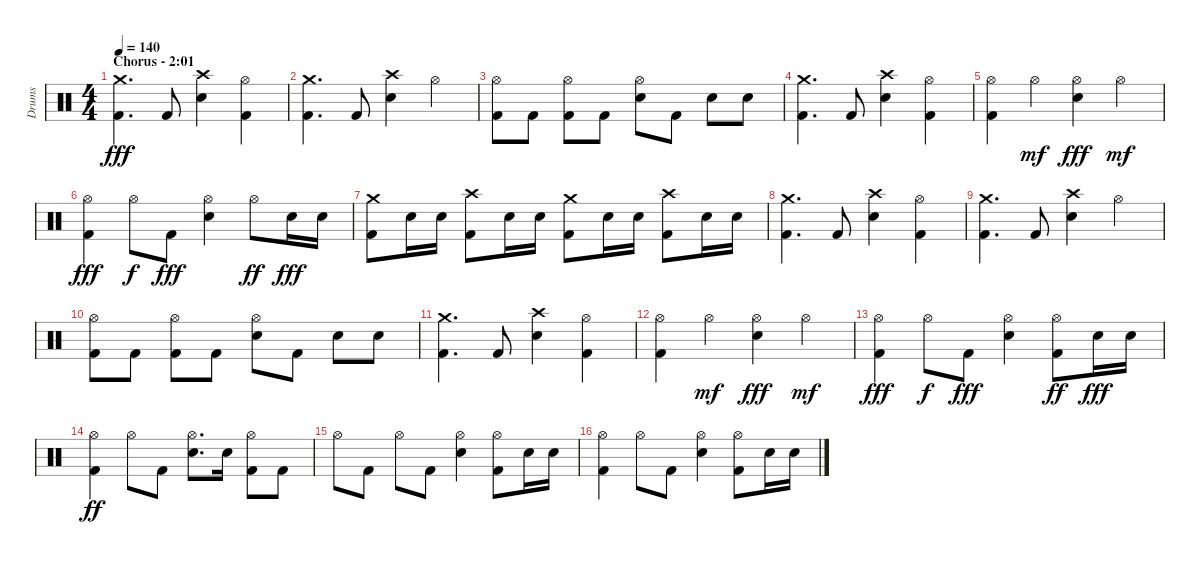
\track ("Drums" "Drums") {instrument percussion}
\staff {score}
\articulation defaults
\ts (4 4)
\section ("" "Chorus - 2:01")
\tempo 140
\clef neutral
\ks c
("Crash medium (hit)" "Kick (hit) 2").4{d dy fff} "Kick (hit) 2".8 ("Crash high (hit)" "Electric Snare (hit)").4 ("Hi-Hat (open)" "Kick (hit) 2").4 |
("Crash medium (hit)" "Kick (hit) 2").4{d} "Kick (hit) 2".8 ("Crash high (hit)" "Electric Snare (hit)").4 "Hi-Hat (open)".4 |
("Hi-Hat (open)" "Kick (hit) 2").8 "Kick (hit) 2".8 ("Hi-Hat (open)" "Kick (hit) 2").8 "Kick (hit) 2".8 ("Hi-Hat (open)" "Electric Snare (hit)").8 "Kick (hit) 2".8 "Electric Snare (hit)".8 "Electric Snare (hit)".8 |
("Crash medium (hit)" "Kick (hit) 2").4{d} "Kick (hit) 2".8 ("Crash high (hit)" "Electric Snare (hit)").4 ("Hi-Hat (open)" "Kick (hit) 2").4 |
("Hi-Hat (open)" "Kick (hit) 2").4 "Hi-Hat (open)".4{dy mf} ("Hi-Hat (open)" "Electric Snare (hit)").4{dy fff} "Hi-Hat (open)".4{dy mf} |
("Hi-Hat (open)" "Kick (hit) 2").4{dy fff} "Hi-Hat (open)".8{dy f} "Kick (hit) 2".8{dy fff} ("Hi-Hat (open)" "Electric Snare (hit)").4 "Hi-Hat (open)".8{dy ff} "Electric Snare (hit)".16{dy fff} "Electric Snare (hit)".16 |
("Crash medium (hit)" "Kick (hit) 2").8 "Electric Snare (hit)".16 "Electric Snare (hit)".16 ("Crash high (hit)" "Kick (hit) 2").8 "Electric Snare (hit)".16 "Electric Snare (hit)".16 ("Crash medium (hit)" "Kick (hit) 2").8 "Electric Snare (hit)".16 "Electric Snare (hit)".16 ("Crash high (hit)" "Kick (hit) 2").8 "Electric Snare (hit)".16 "Electric Snare (hit)".16 |
("Crash medium (hit)" "Kick (hit) 2").4{d} "Kick (hit) 2".8 ("Crash high (hit)" "Electric Snare (hit)").4 ("Hi-Hat (open)" "Kick (hit) 2").4 |
("Crash medium (hit)" "Kick (hit) 2").4{d} "Kick (hit) 2".8 ("Crash high (hit)" "Electric Snare (hit)").4 "Hi-Hat (open)".4 |
("Hi-Hat (open)" "Kick (hit) 2").8 "Kick (hit) 2".8 ("Hi-Hat (open)" "Kick (hit) 2").8 "Kick (hit) 2".8 ("Hi-Hat (open)" "Electric Snare (hit)").8 "Kick (hit) 2".8 "Electric Snare (hit)".8 "Electric Snare (hit)".8 |
("Crash medium (hit)" "Kick (hit) 2").4{d} "Kick (hit) 2".8 ("Crash high (hit)" "Electric Snare (hit)").4 ("Hi-Hat (open)" "Kick (hit) 2").4 |
("Hi-Hat (open)" "Kick (hit) 2").4 "Hi-Hat (open)".4{dy mf} ("Hi-Hat (open)" "Electric Snare (hit)").4{dy fff} "Hi-Hat (open)".4{dy mf} |
("Hi-Hat (open)" "Kick (hit) 2").4{dy fff} "Hi-Hat (open)".8{dy f} "Kick (hit) 2".8{dy fff} ("Hi-Hat (open)" "Electric Snare (hit)").4 ("Hi-Hat (open)" "Kick (hit) 2").8{dy ff} "Electric Snare (hit)".16{dy fff} "Electric Snare (hit)".16 |
("Hi-Hat (open)" "Kick (hit) 2").4{dy ff} "Hi-Hat (open)".8 "Kick (hit) 2".8 ("Hi-Hat (open)" "Electric Snare (hit)").8{d} "Electric Snare (hit)".16 ("Hi-Hat (open)" "Kick (hit) 2").8 "Kick (hit) 2".8 |
"Hi-Hat (open)".8 "Kick (hit) 2".8 "Hi-Hat (open)".8 "Kick (hit) 2".8 ("Hi-Hat (open)" "Electric Snare (hit)").4 ("Hi-Hat (open)" "Kick (hit) 2").8 "Electric Snare (hit)".16 "Electric Snare (hit)".16 |
("Hi-Hat (open)" "Kick (hit) 2").4 "Hi-Hat (open)".8 "Kick (hit) 2".8 ("Hi-Hat (open)" "Electric Snare (hit)").4 ("Hi-Hat (open)" "Kick (hit) 2").8 "Electric Snare (hit)".16 "Electric Snare (hit)".16
